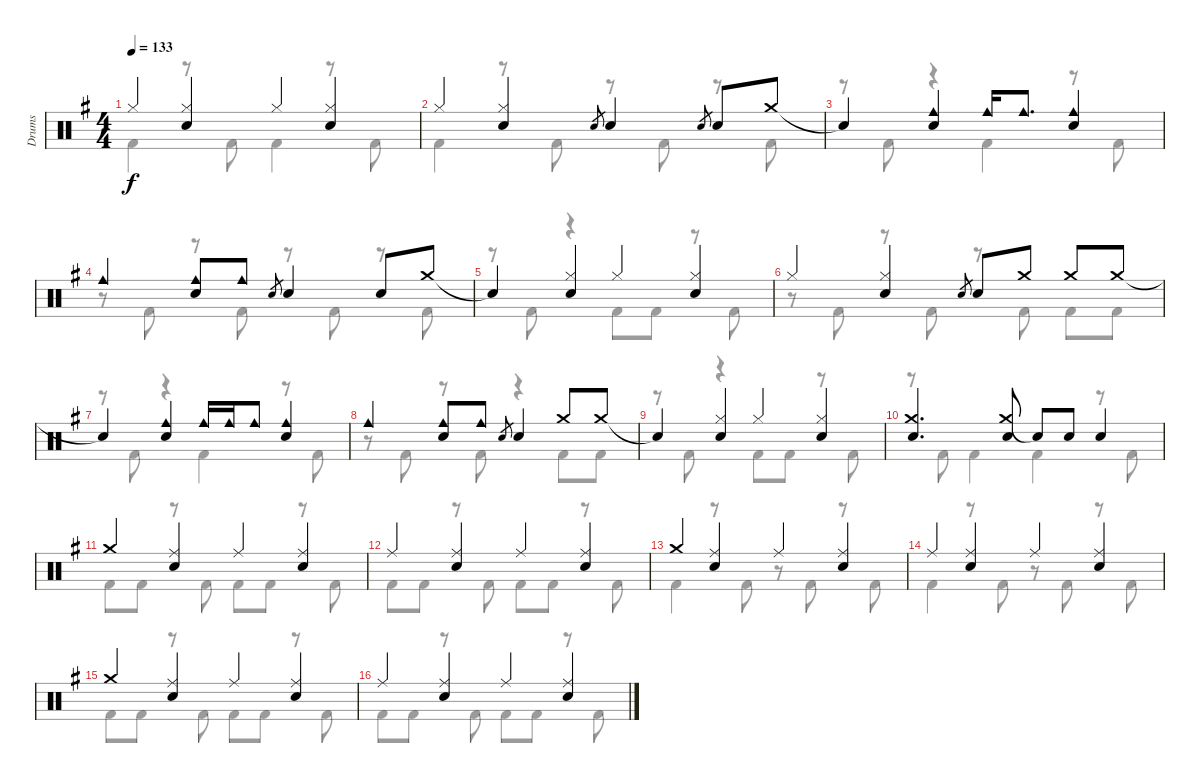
\track ("Drums" "Drums") {instrument percussion}
\staff {score}
\articulation defaults
\voice
\ts (4 4)
\tempo 133
\clef neutral
\ks g "Hi-Hat (closed)".4{dy f}
("Hi-Hat (closed)" "Snare (hit) 2").4 "Hi-Hat (closed)".4 ("Hi-Hat (closed)" "Snare (hit) 2").4 |
"Hi-Hat (closed)".4 ("Hi-Hat (closed)" "Snare (hit) 2").4 "Snare (hit) 2".8{gr} "Snare (hit) 2".4 "Snare (hit) 2".8{gr} "Snare (hit) 2".8 "Crash medium (hit)".8 |
"Snare (hit)"{t}.4 ("Cowbell medium (hit)" "Snare (hit) 2").4 "Cowbell medium (hit)".16 "Cowbell medium (hit)".8{d} ("Cowbell medium (hit)" "Snare (hit) 2").4 |
"Cowbell medium (hit)".4 ("Cowbell medium (hit)" "Snare (hit) 2").8 "Cowbell medium (hit)".8 "Snare (hit) 2".8{gr} "Snare (hit) 2".4 "Snare (hit) 2".8 "Crash medium (hit)".8 |
"Snare (hit)"{t}.4 ("Hi-Hat (closed)" "Snare (hit) 2").4 "Hi-Hat (closed)".4 ("Hi-Hat (closed)" "Snare (hit) 2").4 |
"Hi-Hat (closed)".4 ("Hi-Hat (closed)" "Snare (hit) 2").4 "Snare (hit) 2".8{gr} "Snare (hit) 2".8 "Crash medium (hit)".8 "Crash medium (hit)".8 "Crash medium (hit)".8 |
"Snare (hit)"{t}.4 ("Cowbell medium (hit)" "Snare (hit) 2").4 "Cowbell medium (hit)".16 "Cowbell medium (hit)".16 "Cowbell medium (hit)".8 ("Cowbell medium (hit)" "Snare (hit) 2").4 |
"Cowbell medium (hit)".4 ("Cowbell medium (hit)" "Snare (hit) 2").8 "Cowbell medium (hit)".8 "Snare (hit) 2".8{gr} "Snare (hit) 2".4 "Crash medium (hit)".8 "Crash medium (hit)".8 |
"Snare (hit)"{t}.4 ("Hi-Hat (closed)" "Snare (hit) 2").4 "Hi-Hat (closed)".4 ("Hi-Hat (closed)" "Snare (hit) 2").4 |
("Crash medium (hit)" "Snare (hit) 2").4{d} ("Crash medium (hit)" "Snare (hit) 2").8 "Snare (hit)"{t}.8 "Snare (hit) 2".8 "Snare (hit) 2".4 |
"Crash medium (hit)".4 ("Ride (middle)" "Snare (hit) 2").4 "Ride (middle)".4 ("Ride (middle)" "Snare (hit) 2").4 |
"Ride (middle)".4 ("Ride (middle)" "Snare (hit) 2").4 "Ride (middle)".4 ("Ride (middle)" "Snare (hit) 2").4 |
"Crash medium (hit)".4 ("Ride (middle)" "Snare (hit) 2").4 "Ride (middle)".4 ("Ride (middle)" "Snare (hit) 2").4 |
"Ride (middle)".4 ("Ride (middle)" "Snare (hit) 2").4 "Ride (middle)".4 ("Ride (middle)" "Snare (hit) 2").4 |
"Crash medium (hit)".4 ("Ride (middle)" "Snare (hit) 2").4 "Ride (middle)".4 ("Ride (middle)" "Snare (hit) 2").4 |
"Ride (middle)".4 ("Ride (middle)" "Snare (hit) 2").4 "Ride (middle)".4 ("Ride (middle)" "Snare (hit) 2").4
\voice
\clef neutral
\ottava regular
\simile none
\ks g "Kick (hit) 2".4{dy f}
r.8 "Kick (hit) 2".8 "Kick (hit) 2".4 r.8 "Kick (hit) 2".8 |
"Kick (hit) 2".4 r.8 "Kick (hit) 2".8 r.8 "Kick (hit) 2".8 r.8 "Kick (hit) 2".8 |
r.8 "Kick (hit) 2".8 r.4 "Kick (hit) 2".4 r.8 "Kick (hit) 2".8 |
r.8 "Kick (hit) 2".8 r.8 "Kick (hit) 2".8 r.8 "Kick (hit) 2".8 r.8 "Kick (hit) 2".8 |
r.8 "Kick (hit) 2".8 r.4 "Kick (hit) 2".8 "Kick (hit) 2".8 r.8 "Kick (hit) 2".8 |
r.8 "Kick (hit) 2".8 r.8 "Kick (hit) 2".8 r.8 "Kick (hit) 2".8 "Kick (hit) 2".8 "Kick (hit) 2".8 |
r.8 "Kick (hit) 2".8 r.4 "Kick (hit) 2".4 r.8 "Kick (hit) 2".8 |
r.8 "Kick (hit) 2".8 r.8 "Kick (hit) 2".8 r.4 "Kick (hit) 2".8 "Kick (hit) 2".8 |
r.8 "Kick (hit) 2".8 r.4 "Kick (hit) 2".8 "Kick (hit) 2".8 r.8 "Kick (hit) 2".8 |
r.8 "Kick (hit) 2".8 "Kick (hit) 2".4 "Kick (hit) 2".4 r.8 "Kick (hit) 2".8 |
"Kick (hit) 2".8 "Kick (hit) 2".8 r.8 "Kick (hit) 2".8 "Kick (hit) 2".8 "Kick (hit) 2".8 r.8 "Kick (hit) 2".8 |
"Kick (hit) 2".8 "Kick (hit) 2".8 r.8 "Kick (hit) 2".8 "Kick (hit) 2".8 "Kick (hit) 2".8 r.8 "Kick (hit) 2".8 |
"Kick (hit) 2".4 r.8 "Kick (hit) 2".8 r.8 "Kick (hit) 2".8 r.8 "Kick (hit) 2".8 |
"Kick (hit) 2".4 r.8 "Kick (hit) 2".8 r.8 "Kick (hit) 2".8 r.8 "Kick (hit) 2".8 |
"Kick (hit) 2".8 "Kick (hit) 2".8 r.8 "Kick (hit) 2".8 "Kick (hit) 2".8 "Kick (hit) 2".8 r.8 "Kick (hit) 2".8 |
"Kick (hit) 2".8 "Kick (hit) 2".8 r.8 "Kick (hit) 2".8 "Kick (hit) 2".8 "Kick (hit) 2".8 r.8 "Kick (hit) 2".8
